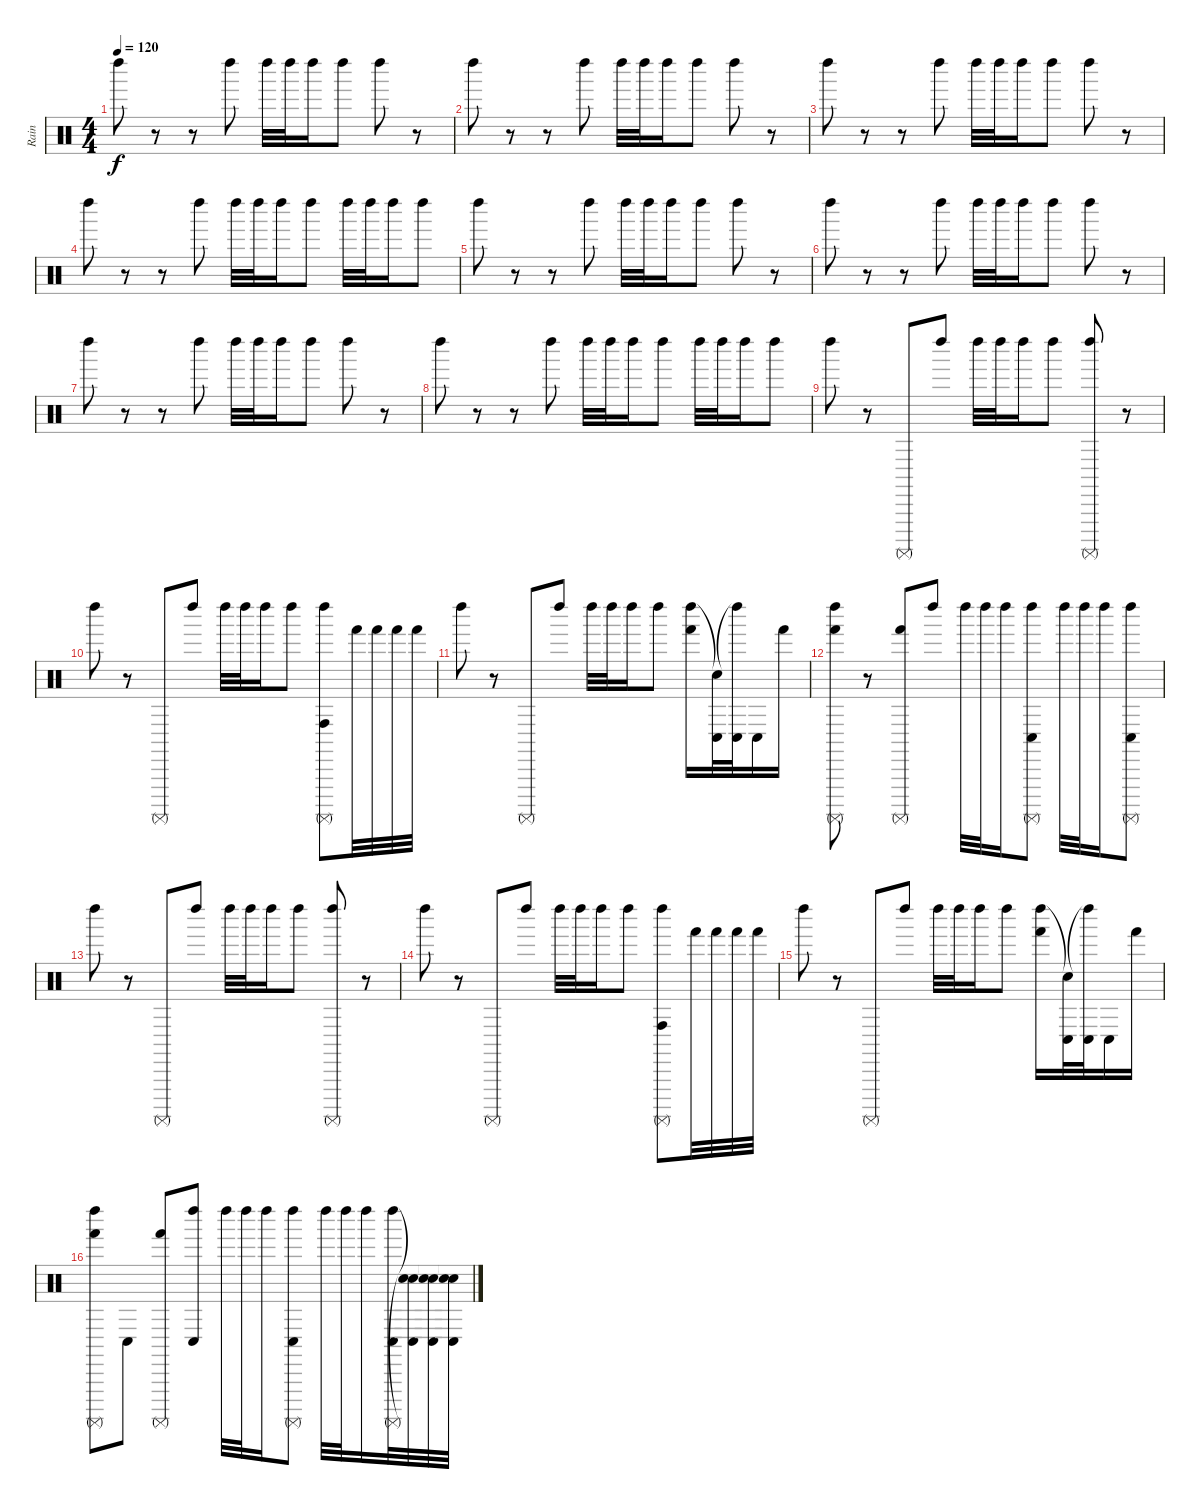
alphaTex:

\track ("Rain" "Rain") {instrument percussion}
\staff {score}
\articulation defaults
\ts (4 4)
\tempo 120
\clef neutral
\ks c "Left Maraca (hit)".8{dy f}
r.8 r.8 "Left Maraca (hit)".8 "Left Maraca (hit)".32 "Left Maraca (hit)".32 "Left Maraca (hit)".16 "Left Maraca (hit)".8 "Left Maraca (hit)".8 r.8 |
"Left Maraca (hit)".8 r.8 r.8 "Left Maraca (hit)".8 "Left Maraca (hit)".32 "Left Maraca (hit)".32 "Left Maraca (hit)".16 "Left Maraca (hit)".8 "Left Maraca (hit)".8 r.8 |
"Left Maraca (hit)".8 r.8 r.8 "Left Maraca (hit)".8 "Left Maraca (hit)".32 "Left Maraca (hit)".32 "Left Maraca (hit)".16 "Left Maraca (hit)".8 "Left Maraca (hit)".8 r.8 |
"Left Maraca (hit)".8 r.8 r.8 "Left Maraca (hit)".8 "Left Maraca (hit)".32 "Left Maraca (hit)".32 "Left Maraca (hit)".16 "Left Maraca (hit)".8 "Left Maraca (hit)".32 "Left Maraca (hit)".32 "Left Maraca (hit)".16 "Left Maraca (hit)".8 |
"Left Maraca (hit)".8 r.8 r.8 "Left Maraca (hit)".8 "Left Maraca (hit)".32 "Left Maraca (hit)".32 "Left Maraca (hit)".16 "Left Maraca (hit)".8 "Left Maraca (hit)".8 r.8 |
"Left Maraca (hit)".8 r.8 r.8 "Left Maraca (hit)".8 "Left Maraca (hit)".32 "Left Maraca (hit)".32 "Left Maraca (hit)".16 "Left Maraca (hit)".8 "Left Maraca (hit)".8 r.8 |
"Left Maraca (hit)".8 r.8 r.8 "Left Maraca (hit)".8 "Left Maraca (hit)".32 "Left Maraca (hit)".32 "Left Maraca (hit)".16 "Left Maraca (hit)".8 "Left Maraca (hit)".8 r.8 |
"Left Maraca (hit)".8 r.8 r.8 "Left Maraca (hit)".8 "Left Maraca (hit)".32 "Left Maraca (hit)".32 "Left Maraca (hit)".16 "Left Maraca (hit)".8 "Left Maraca (hit)".32 "Left Maraca (hit)".32 "Left Maraca (hit)".16 "Left Maraca (hit)".8 |
"Left Maraca (hit)".8 r.8 "Surdo (mute)".8 "Left Maraca (hit)".8 "Left Maraca (hit)".32 "Left Maraca (hit)".32 "Left Maraca (hit)".16 "Left Maraca (hit)".8 ("Left Maraca (hit)" "Surdo (mute)").8 r.8 |
"Left Maraca (hit)".8 r.8 "Surdo (mute)".8 "Left Maraca (hit)".8 "Left Maraca (hit)".32 "Left Maraca (hit)".32 "Left Maraca (hit)".16 "Left Maraca (hit)".8 ("Left Maraca (hit)" "Surdo (mute)" "Conga high (hit)").8 "Hand (hit)".32 "Hand (hit)".32 "Hand (hit)".32 "Hand (hit)".32 |
"Left Maraca (hit)".8 r.8 "Surdo (mute)".8 "Left Maraca (hit)".8 "Left Maraca (hit)".32 "Left Maraca (hit)".32 "Left Maraca (hit)".16 "Left Maraca (hit)".8 ("Left Maraca (hit)" "Hand (hit)").16 ("Snare (hit)"{t} "Conga low (hit)").32 ("Left Maraca (hit)"{t} "Conga low (hit)").32 "Conga low (hit)".16 "Hand (hit)".16 |
("Left Maraca (hit)" "Hand (hit)" "Surdo (mute)").8 r.8 ("Hand (hit)" "Surdo (mute)").8 "Left Maraca (hit)".8 "Left Maraca (hit)".32 "Left Maraca (hit)".32 "Left Maraca (hit)".16 ("Left Maraca (hit)" "Conga low (hit)" "Surdo (mute)").8 "Left Maraca (hit)".32 "Left Maraca (hit)".32 "Left Maraca (hit)".16 ("Left Maraca (hit)" "Conga low (hit)" "Surdo (mute)").8 |
"Left Maraca (hit)".8 r.8 "Surdo (mute)".8 "Left Maraca (hit)".8 "Left Maraca (hit)".32 "Left Maraca (hit)".32 "Left Maraca (hit)".16 "Left Maraca (hit)".8 ("Left Maraca (hit)" "Surdo (mute)").8 r.8 |
"Left Maraca (hit)".8 r.8 "Surdo (mute)".8 "Left Maraca (hit)".8 "Left Maraca (hit)".32 "Left Maraca (hit)".32 "Left Maraca (hit)".16 "Left Maraca (hit)".8 ("Left Maraca (hit)" "Surdo (mute)" "Conga high (hit)").8 "Hand (hit)".32 "Hand (hit)".32 "Hand (hit)".32 "Hand (hit)".32 |
"Left Maraca (hit)".8 r.8 "Surdo (mute)".8 "Left Maraca (hit)".8 "Left Maraca (hit)".32 "Left Maraca (hit)".32 "Left Maraca (hit)".16 "Left Maraca (hit)".8 ("Left Maraca (hit)" "Hand (hit)").16 ("Snare (hit)"{t} "Conga low (hit)").32 ("Left Maraca (hit)"{t} "Conga low (hit)").32 "Conga low (hit)".16 "Hand (hit)".16 |
("Left Maraca (hit)" "Hand (hit)" "Surdo (mute)").8 "Conga low (hit)".8 ("Hand (hit)" "Surdo (mute)").8 ("Left Maraca (hit)" "Conga low (hit)").8 "Left Maraca (hit)".32 "Left Maraca (hit)".32 "Left Maraca (hit)".16 ("Left Maraca (hit)" "Conga low (hit)" "Surdo (mute)").8 "Left Maraca (hit)".32 "Left Maraca (hit)".32 "Left Maraca (hit)".16 ("Left Maraca (hit)" "Conga low (hit)" "Surdo (mute)").32 ("Snare (hit)"{t} "Conga low (hit)" "Snare (hit)"{t}).32 ("Snare (hit)"{t} "Conga low (hit)" "Snare (hit)"{t}).32 ("Snare (hit)"{t} "Conga low (hit)" "Snare (hit)"{t}).32
